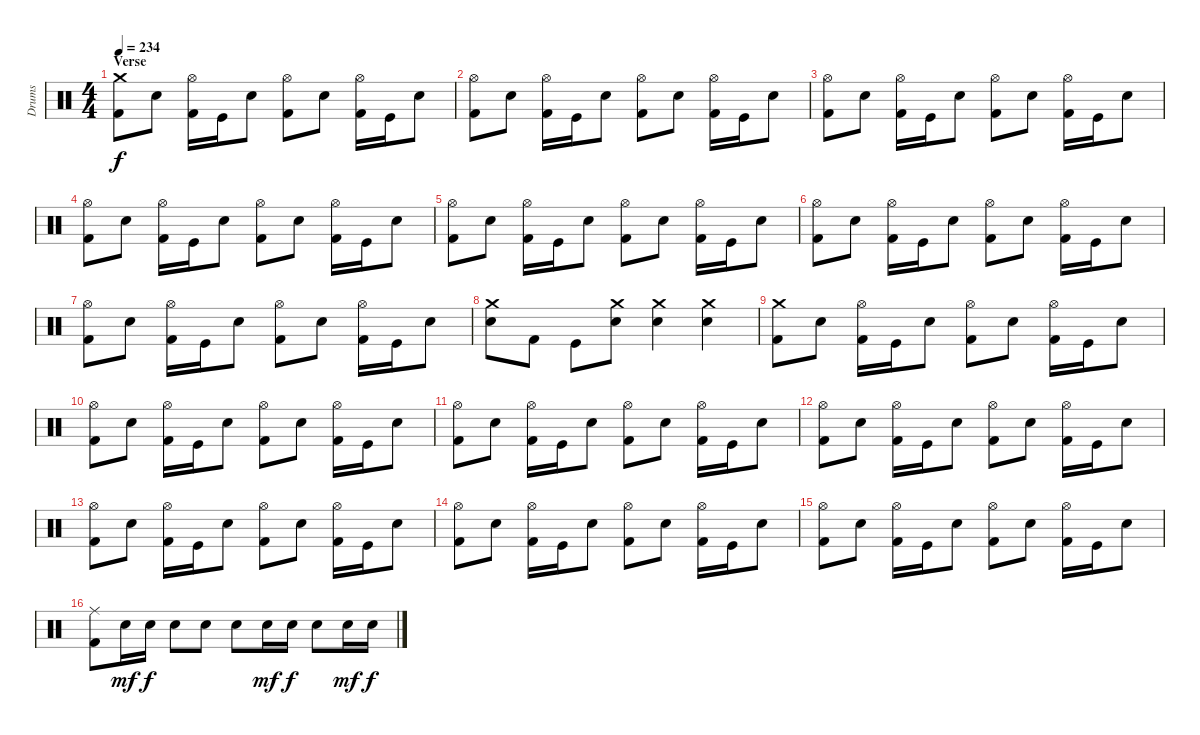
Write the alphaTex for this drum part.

\track ("Drums" "Drums") {instrument percussion}
\staff {score}
\articulation defaults
\ts (4 4)
\section ("" "Verse")
\tempo 234
\clef neutral
\ks c
("Crash medium (hit)" "Kick (hit) 2").8{dy f} "Snare (hit) 2".8 ("Hi-Hat (open)" "Kick (hit) 2").16 "Kick (hit)".16 "Snare (hit) 2".8 ("Hi-Hat (open)" "Kick (hit) 2").8 "Snare (hit) 2".8 ("Hi-Hat (open)" "Kick (hit) 2").16 "Kick (hit)".16 "Snare (hit) 2".8 |
("Hi-Hat (open)" "Kick (hit) 2").8 "Snare (hit) 2".8 ("Hi-Hat (open)" "Kick (hit) 2").16 "Kick (hit)".16 "Snare (hit) 2".8 ("Hi-Hat (open)" "Kick (hit) 2").8 "Snare (hit) 2".8 ("Hi-Hat (open)" "Kick (hit) 2").16 "Kick (hit)".16 "Snare (hit) 2".8 |
("Hi-Hat (open)" "Kick (hit) 2").8 "Snare (hit) 2".8 ("Hi-Hat (open)" "Kick (hit) 2").16 "Kick (hit)".16 "Snare (hit) 2".8 ("Hi-Hat (open)" "Kick (hit) 2").8 "Snare (hit) 2".8 ("Hi-Hat (open)" "Kick (hit) 2").16 "Kick (hit)".16 "Snare (hit) 2".8 |
("Hi-Hat (open)" "Kick (hit) 2").8 "Snare (hit) 2".8 ("Hi-Hat (open)" "Kick (hit) 2").16 "Kick (hit)".16 "Snare (hit) 2".8 ("Hi-Hat (open)" "Kick (hit) 2").8 "Snare (hit) 2".8 ("Hi-Hat (open)" "Kick (hit) 2").16 "Kick (hit)".16 "Snare (hit) 2".8 |
("Hi-Hat (open)" "Kick (hit) 2").8 "Snare (hit) 2".8 ("Hi-Hat (open)" "Kick (hit) 2").16 "Kick (hit)".16 "Snare (hit) 2".8 ("Hi-Hat (open)" "Kick (hit) 2").8 "Snare (hit) 2".8 ("Hi-Hat (open)" "Kick (hit) 2").16 "Kick (hit)".16 "Snare (hit) 2".8 |
("Hi-Hat (open)" "Kick (hit) 2").8 "Snare (hit) 2".8 ("Hi-Hat (open)" "Kick (hit) 2").16 "Kick (hit)".16 "Snare (hit) 2".8 ("Hi-Hat (open)" "Kick (hit) 2").8 "Snare (hit) 2".8 ("Hi-Hat (open)" "Kick (hit) 2").16 "Kick (hit)".16 "Snare (hit) 2".8 |
("Hi-Hat (open)" "Kick (hit) 2").8 "Snare (hit) 2".8 ("Hi-Hat (open)" "Kick (hit) 2").16 "Kick (hit)".16 "Snare (hit) 2".8 ("Hi-Hat (open)" "Kick (hit) 2").8 "Snare (hit) 2".8 ("Hi-Hat (open)" "Kick (hit) 2").16 "Kick (hit)".16 "Snare (hit) 2".8 |
("Crash medium (hit)" "Snare (hit) 2").8 "Kick (hit) 2".8 "Kick (hit)".8 ("Crash medium (hit)" "Snare (hit) 2").8 ("Crash medium (hit)" "Snare (hit) 2").4 ("Crash medium (hit)" "Snare (hit) 2").4 |
("Crash medium (hit)" "Kick (hit) 2").8 "Snare (hit) 2".8 ("Hi-Hat (open)" "Kick (hit) 2").16 "Kick (hit)".16 "Snare (hit) 2".8 ("Hi-Hat (open)" "Kick (hit) 2").8 "Snare (hit) 2".8 ("Hi-Hat (open)" "Kick (hit) 2").16 "Kick (hit)".16 "Snare (hit) 2".8 |
("Hi-Hat (open)" "Kick (hit) 2").8 "Snare (hit) 2".8 ("Hi-Hat (open)" "Kick (hit) 2").16 "Kick (hit)".16 "Snare (hit) 2".8 ("Hi-Hat (open)" "Kick (hit) 2").8 "Snare (hit) 2".8 ("Hi-Hat (open)" "Kick (hit) 2").16 "Kick (hit)".16 "Snare (hit) 2".8 |
("Hi-Hat (open)" "Kick (hit) 2").8 "Snare (hit) 2".8 ("Hi-Hat (open)" "Kick (hit) 2").16 "Kick (hit)".16 "Snare (hit) 2".8 ("Hi-Hat (open)" "Kick (hit) 2").8 "Snare (hit) 2".8 ("Hi-Hat (open)" "Kick (hit) 2").16 "Kick (hit)".16 "Snare (hit) 2".8 |
("Hi-Hat (open)" "Kick (hit) 2").8 "Snare (hit) 2".8 ("Hi-Hat (open)" "Kick (hit) 2").16 "Kick (hit)".16 "Snare (hit) 2".8 ("Hi-Hat (open)" "Kick (hit) 2").8 "Snare (hit) 2".8 ("Hi-Hat (open)" "Kick (hit) 2").16 "Kick (hit)".16 "Snare (hit) 2".8 |
("Hi-Hat (open)" "Kick (hit) 2").8 "Snare (hit) 2".8 ("Hi-Hat (open)" "Kick (hit) 2").16 "Kick (hit)".16 "Snare (hit) 2".8 ("Hi-Hat (open)" "Kick (hit) 2").8 "Snare (hit) 2".8 ("Hi-Hat (open)" "Kick (hit) 2").16 "Kick (hit)".16 "Snare (hit) 2".8 |
("Hi-Hat (open)" "Kick (hit) 2").8 "Snare (hit) 2".8 ("Hi-Hat (open)" "Kick (hit) 2").16 "Kick (hit)".16 "Snare (hit) 2".8 ("Hi-Hat (open)" "Kick (hit) 2").8 "Snare (hit) 2".8 ("Hi-Hat (open)" "Kick (hit) 2").16 "Kick (hit)".16 "Snare (hit) 2".8 |
("Hi-Hat (open)" "Kick (hit) 2").8 "Snare (hit) 2".8 ("Hi-Hat (open)" "Kick (hit) 2").16 "Kick (hit)".16 "Snare (hit) 2".8 ("Hi-Hat (open)" "Kick (hit) 2").8 "Snare (hit) 2".8 ("Hi-Hat (open)" "Kick (hit) 2").16 "Kick (hit)".16 "Snare (hit) 2".8 |
("Ride (middle)" "Kick (hit) 2").8 "Snare (hit) 2".16{dy mf} "Snare (hit) 2".16{dy f} "Snare (hit) 2".8 "Snare (hit) 2".8 "Snare (hit) 2".8 "Snare (hit) 2".16{dy mf} "Snare (hit) 2".16{dy f} "Snare (hit) 2".8 "Snare (hit) 2".16{dy mf} "Snare (hit) 2".16{dy f}
